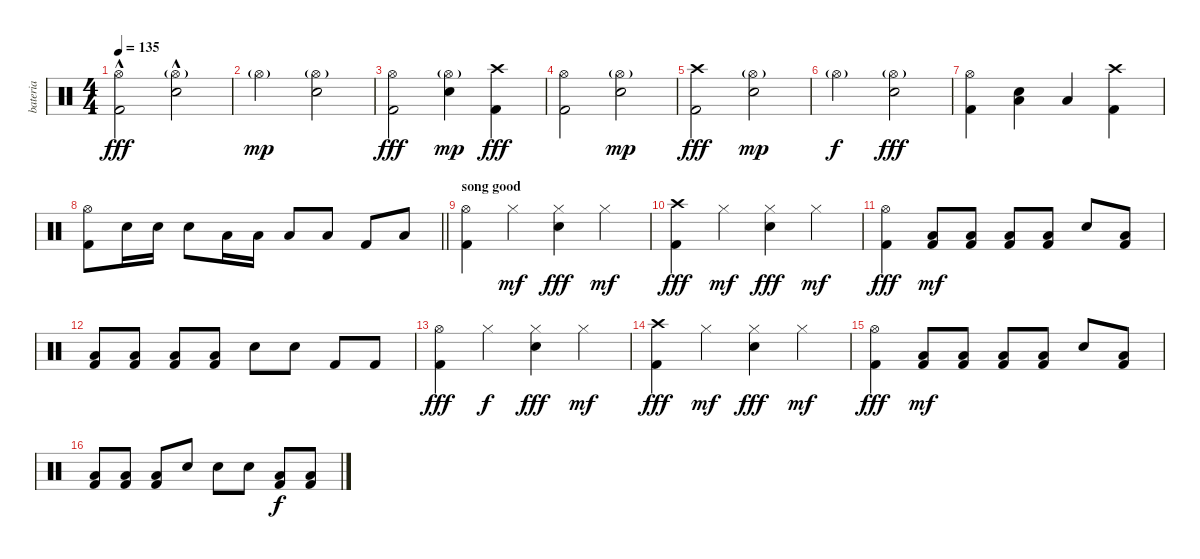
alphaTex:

\track ("bateria" "bateria") {instrument percussion}
\staff {score}
\articulation defaults
\ts (4 4)
\tempo 135
\clef neutral
\ks c
("Hi-Hat (open)" "Kick (hit) 2"{hac}).2{dy fff} ("Hi-Hat (open)"{g} "Snare (hit) 2"{hac}).2 |
"Hi-Hat (open)"{g}.2{dy mp} ("Hi-Hat (open)"{g} "Snare (hit) 2").2 |
("Hi-Hat (open)" "Kick (hit) 2").2{dy fff} ("Hi-Hat (open)"{g} "Snare (hit) 2").4{dy mp} ("Crash high (hit)" "Kick (hit) 2").4{dy fff} |
("Hi-Hat (open)" "Kick (hit) 2").2 ("Hi-Hat (open)"{g} "Snare (hit) 2").2{dy mp} |
("Crash high (hit)" "Kick (hit) 2").2{dy fff} ("Hi-Hat (open)"{g} "Snare (hit) 2").2{dy mp} |
"Hi-Hat (open)"{g}.2{dy f} ("Hi-Hat (open)"{g} "Snare (hit) 2").2{dy fff} |
("Hi-Hat (open)" "Kick (hit) 2").4 ("Snare (hit) 2" "Low Floor Tom (hit)").4 "Low Tom (hit)".4 ("Crash high (hit)" "Kick (hit) 2").4 |
\barLineRight lightlight
("Hi-Hat (open)" "Kick (hit) 2").8 "Snare (hit) 2".16 "Snare (hit) 2".16 "Snare (hit) 2".8 "Low Floor Tom (hit)".16 "Low Floor Tom (hit)".16 "Low Floor Tom (hit)".8 "Low Tom (hit)".8 "Kick (hit) 2".8 "Low Tom (hit)".8 |
\section ("" "song good")
("Hi-Hat (open)" "Kick (hit) 2").4 "Hi-Hat (closed)".4{dy mf} ("Hi-Hat (closed)" "Snare (hit) 2").4{dy fff} "Hi-Hat (closed)".4{dy mf} |
("Crash high (hit)" "Kick (hit) 2").4{dy fff} "Hi-Hat (closed)".4{dy mf} ("Hi-Hat (closed)" "Snare (hit) 2").4{dy fff} "Hi-Hat (closed)".4{dy mf} |
("Hi-Hat (open)" "Kick (hit) 2").4{dy fff} ("Low Floor Tom (hit)" "Kick (hit) 2").8{dy mf} ("Low Floor Tom (hit)" "Kick (hit) 2").8 ("Low Floor Tom (hit)" "Kick (hit) 2").8 ("Low Floor Tom (hit)" "Kick (hit) 2").8 "Snare (hit) 2".8 ("Low Floor Tom (hit)" "Kick (hit) 2").8 |
("Low Floor Tom (hit)" "Kick (hit) 2").8 ("Low Floor Tom (hit)" "Kick (hit) 2").8 ("Low Floor Tom (hit)" "Kick (hit) 2").8 ("Low Floor Tom (hit)" "Kick (hit) 2").8 "Snare (hit) 2".8 "Snare (hit) 2".8 "Kick (hit) 2".8 "Kick (hit) 2".8 |
("Hi-Hat (open)" "Kick (hit) 2").4{dy fff} "Hi-Hat (closed)".4{dy f} ("Hi-Hat (closed)" "Snare (hit) 2").4{dy fff} "Hi-Hat (closed)".4{dy mf} |
("Crash high (hit)" "Kick (hit) 2").4{dy fff} "Hi-Hat (closed)".4{dy mf} ("Hi-Hat (closed)" "Snare (hit) 2").4{dy fff} "Hi-Hat (closed)".4{dy mf} |
("Hi-Hat (open)" "Kick (hit) 2").4{dy fff} ("Low Floor Tom (hit)" "Kick (hit) 2").8{dy mf} ("Low Floor Tom (hit)" "Kick (hit) 2").8 ("Low Floor Tom (hit)" "Kick (hit) 2").8 ("Low Floor Tom (hit)" "Kick (hit) 2").8 "Snare (hit) 2".8 ("Low Floor Tom (hit)" "Kick (hit) 2").8 |
("Low Floor Tom (hit)" "Kick (hit) 2").8 ("Low Floor Tom (hit)" "Kick (hit) 2").8 ("Low Floor Tom (hit)" "Kick (hit) 2").8 "Snare (hit) 2".8 "Snare (hit) 2".8 "Snare (hit) 2".8 ("Low Floor Tom (hit)" "Kick (hit) 2").8{dy f} ("Low Floor Tom (hit)" "Kick (hit) 2").8
